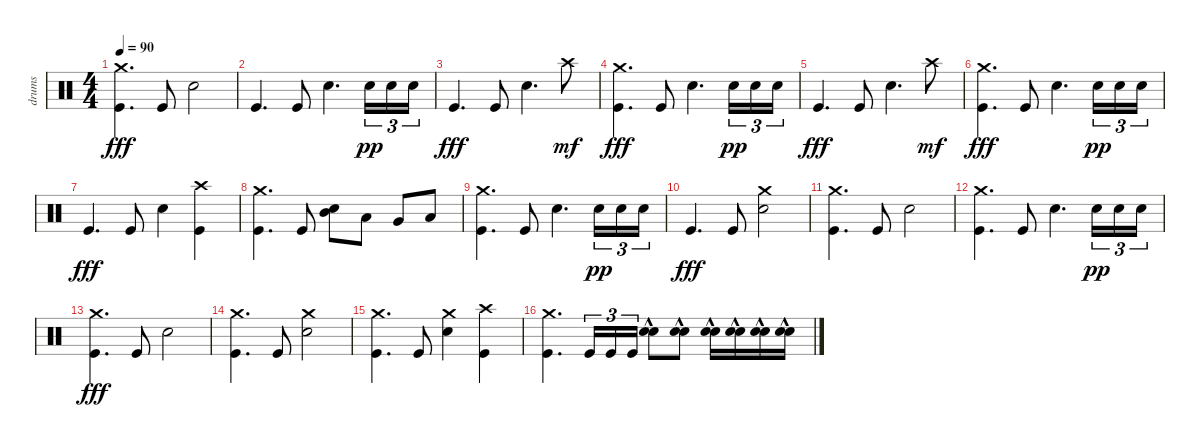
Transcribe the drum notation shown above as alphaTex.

\track ("drums" "drums") {instrument percussion}
\staff {score}
\articulation defaults
\ts (4 4)
\tempo 90
\clef neutral
\ks c
("Crash medium (hit)" "Kick (hit)").4{d dy fff} "Kick (hit)".8 "Electric Snare (hit)".2 |
"Kick (hit)".4{d} "Kick (hit)".8 "Electric Snare (hit)".4{d} "Electric Snare (hit)".16{tu (3 2) dy pp} "Electric Snare (hit)".16{tu (3 2)} "Electric Snare (hit)".16{tu (3 2)} |
"Kick (hit)".4{d dy fff} "Kick (hit)".8 "Electric Snare (hit)".4{d} "Crash high (hit)".8{dy mf} |
("Crash medium (hit)" "Kick (hit)").4{d dy fff} "Kick (hit)".8 "Electric Snare (hit)".4{d} "Electric Snare (hit)".16{tu (3 2) dy pp} "Electric Snare (hit)".16{tu (3 2)} "Electric Snare (hit)".16{tu (3 2)} |
"Kick (hit)".4{d dy fff} "Kick (hit)".8 "Electric Snare (hit)".4{d} "Crash high (hit)".8{dy mf} |
("Crash medium (hit)" "Kick (hit)").4{d dy fff} "Kick (hit)".8 "Electric Snare (hit)".4{d} "Electric Snare (hit)".16{tu (3 2) dy pp} "Electric Snare (hit)".16{tu (3 2)} "Electric Snare (hit)".16{tu (3 2)} |
"Kick (hit)".4{d dy fff} "Kick (hit)".8 "Electric Snare (hit)".4 ("Crash high (hit)" "Kick (hit)").4 |
("Crash medium (hit)" "Kick (hit)").4{d} "Kick (hit)".8 ("Mid Tom (hit)" "Electric Snare (hit)").8 "Low Tom (hit)".8 "Very Low Tom (hit)".8 "Low Floor Tom (hit)".8 |
("Crash medium (hit)" "Kick (hit)").4{d} "Kick (hit)".8 "Electric Snare (hit)".4{d} "Electric Snare (hit)".16{tu (3 2) dy pp} "Electric Snare (hit)".16{tu (3 2)} "Electric Snare (hit)".16{tu (3 2)} |
"Kick (hit)".4{d dy fff} "Kick (hit)".8 ("Crash medium (hit)" "Electric Snare (hit)").2 |
("Crash medium (hit)" "Kick (hit)").4{d} "Kick (hit)".8 "Electric Snare (hit)".2 |
("Crash medium (hit)" "Kick (hit)").4{d} "Kick (hit)".8 "Electric Snare (hit)".4{d} "Electric Snare (hit)".16{tu (3 2) dy pp} "Electric Snare (hit)".16{tu (3 2)} "Electric Snare (hit)".16{tu (3 2)} |
("Crash medium (hit)" "Kick (hit)").4{d dy fff} "Kick (hit)".8 "Electric Snare (hit)".2 |
("Crash medium (hit)" "Kick (hit)").4{d} "Kick (hit)".8 ("Crash medium (hit)" "Electric Snare (hit)").2 |
("Crash medium (hit)" "Kick (hit)").4{d} "Kick (hit)".8 ("Crash medium (hit)" "Electric Snare (hit)").4 ("Crash high (hit)" "Kick (hit)").4 |
("Crash medium (hit)" "Kick (hit)").4{d} "Kick (hit)".16{tu (3 2)} "Kick (hit)".16{tu (3 2)} "Kick (hit)".16{tu (3 2)} ("Electric Snare (hit)"{hac} "Snare (hit) 2").8 ("Electric Snare (hit)"{hac} "Snare (hit) 2").8 ("Electric Snare (hit)"{hac} "Snare (hit) 2").16 ("Electric Snare (hit)"{hac} "Snare (hit) 2").16 ("Electric Snare (hit)"{hac} "Snare (hit) 2").16 ("Electric Snare (hit)"{hac} "Snare (hit) 2").16
